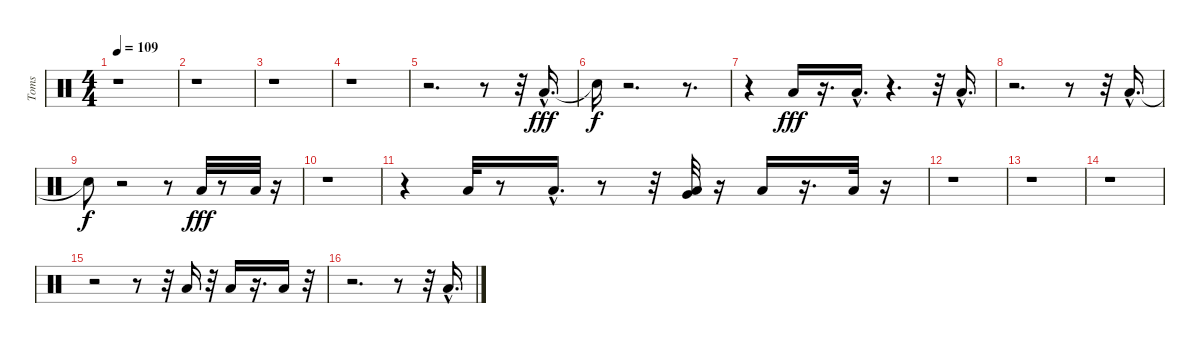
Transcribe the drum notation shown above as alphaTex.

\track ("Toms            " "Toms      ") {instrument percussion}
\staff {score}
\articulation defaults
\ts (4 4)
\tempo 109
\clef neutral
\ks c
r.1{dy fff} |
r.1 |
r.1 |
r.1 |
r.2{d} r.8 r.32 "Low Tom (hit)"{hac}.16{d} |
"Snare (hit)"{t}.16{dy f} r.2{d} r.8{d} |
r.4 "Low Tom (hit)".16{dy fff} r.16{d} "Low Tom (hit)"{hac}.16{d} r.4{d} r.32 "Low Tom (hit)"{hac}.16{d} |
r.2{d} r.8 r.32 "Low Tom (hit)"{hac}.16{d} |
"Snare (hit)"{t}.8{dy f} r.2 r.8 "Low Tom (hit)".32{dy fff} r.8 "Low Tom (hit)".32 r.16 |
r.1 |
r.4 "Low Tom (hit)".32 r.8 "Low Tom (hit)"{hac}.16{d} r.8 r.32 ("Low Floor Tom (hit)" "Very Low Tom (hit)").32 r.16 "Low Floor Tom (hit)".16 r.16{d} "Low Floor Tom (hit)".32 r.16 |
r.1 |
r.1 |
r.1 |
r.2 r.8 r.32 "Low Tom (hit)".16 r.32 "Low Tom (hit)".16 r.16{d} "Low Tom (hit)".16 r.32 |
r.2{d} r.8 r.32 "Low Tom (hit)"{hac}.16{d}
